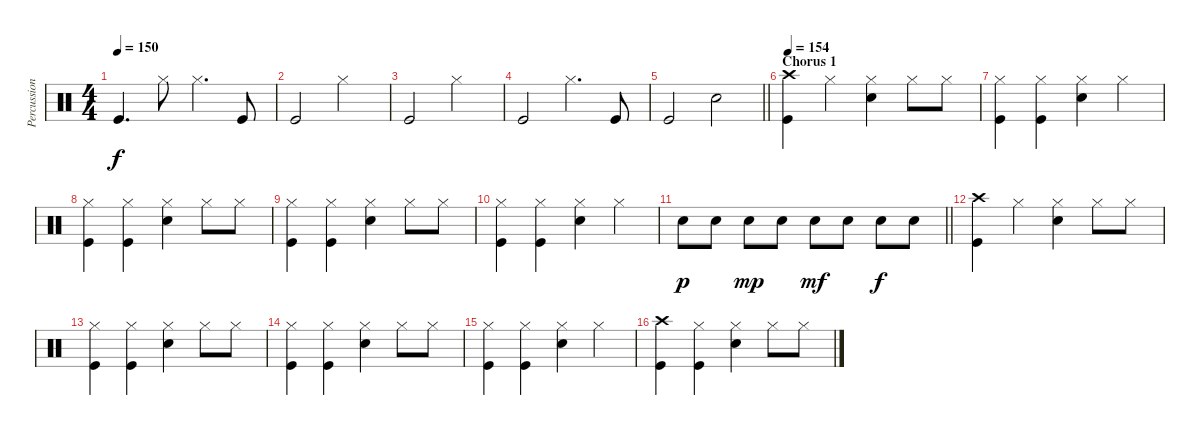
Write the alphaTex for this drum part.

\track ("Percussion" "Percussion") {instrument percussion}
\staff {score}
\articulation defaults
\ts (4 4)
\tempo 150
\clef neutral
\ks c "Kick (hit)".4{d dy f} "Hi-Hat (closed)".8 "Hi-Hat (closed)".4{d} "Kick (hit)".8
|
"Kick (hit)".2 "Hi-Hat (closed)".2 |
"Kick (hit)".2 "Hi-Hat (closed)".2 |
"Kick (hit)".2 "Hi-Hat (closed)".4{d} "Kick (hit)".8 |
\barLineRight lightlight "Kick (hit)".2 "Snare (hit) 2".2
|
\section ("" "Chorus 1")
\tempo 154
("Crash high (hit)" "Kick (hit)").4 "Hi-Hat (closed)".4 ("Hi-Hat (closed)" "Snare (hit) 2").4 "Hi-Hat (closed)".8 "Hi-Hat (closed)".8 |
("Hi-Hat (closed)" "Kick (hit)").4 ("Hi-Hat (closed)" "Kick (hit)").4 ("Hi-Hat (closed)" "Snare (hit) 2").4 "Hi-Hat (closed)".4 |
("Hi-Hat (closed)" "Kick (hit)").4 ("Hi-Hat (closed)" "Kick (hit)").4 ("Hi-Hat (closed)" "Snare (hit) 2").4 "Hi-Hat (closed)".8 "Hi-Hat (closed)".8 |
("Hi-Hat (closed)" "Kick (hit)").4 ("Hi-Hat (closed)" "Kick (hit)").4 ("Hi-Hat (closed)" "Snare (hit) 2").4 "Hi-Hat (closed)".8 "Hi-Hat (closed)".8 |
("Hi-Hat (closed)" "Kick (hit)").4 ("Hi-Hat (closed)" "Kick (hit)").4 ("Hi-Hat (closed)" "Snare (hit) 2").4 "Hi-Hat (closed)".4 |
\barLineRight lightlight "Snare (hit) 2".8{dy p} "Snare (hit) 2".8 "Snare (hit) 2".8{dy mp} "Electric Snare (hit)".8 "Electric Snare (hit)".8{dy mf} "Electric Snare (hit)".8 "Snare (hit) 2".8{dy f} "Snare (hit) 2".8
|
("Crash high (hit)" "Kick (hit)").4 "Hi-Hat (closed)".4 ("Hi-Hat (closed)" "Snare (hit) 2").4 "Hi-Hat (closed)".8 "Hi-Hat (closed)".8 |
("Hi-Hat (closed)" "Kick (hit)").4 ("Hi-Hat (closed)" "Kick (hit)").4 ("Hi-Hat (closed)" "Snare (hit) 2").4 "Hi-Hat (closed)".8 "Hi-Hat (closed)".8 |
("Hi-Hat (closed)" "Kick (hit)").4 ("Hi-Hat (closed)" "Kick (hit)").4 ("Hi-Hat (closed)" "Snare (hit) 2").4 "Hi-Hat (closed)".8 "Hi-Hat (closed)".8 |
("Hi-Hat (closed)" "Kick (hit)").4 ("Hi-Hat (closed)" "Kick (hit)").4 ("Hi-Hat (closed)" "Snare (hit) 2").4 "Hi-Hat (closed)".4 |
("Crash high (hit)" "Kick (hit)").4 ("Hi-Hat (closed)" "Kick (hit)").4 ("Hi-Hat (closed)" "Snare (hit) 2").4 "Hi-Hat (closed)".8 "Hi-Hat (closed)".8
